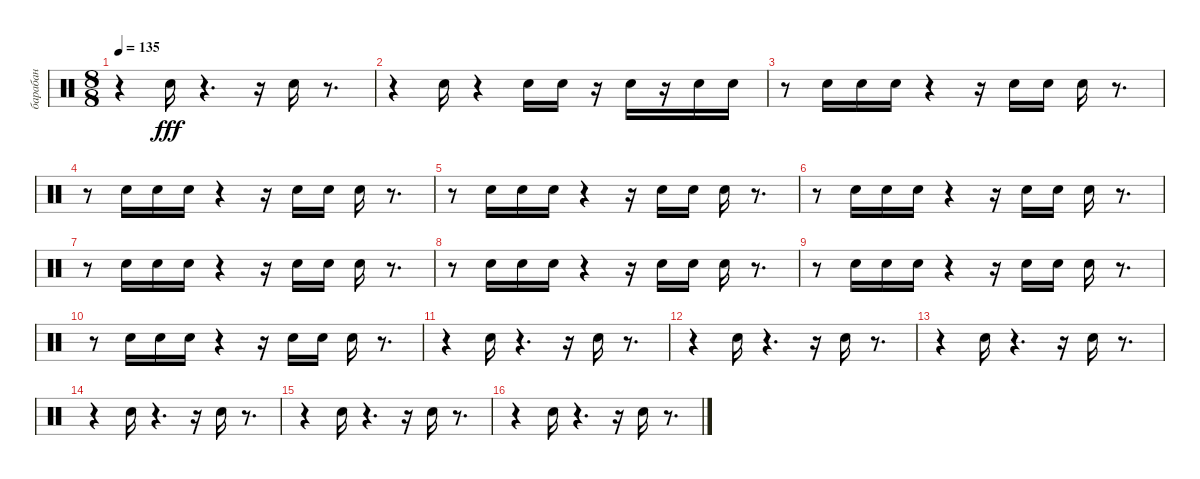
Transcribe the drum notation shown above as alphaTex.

\track ("барабан" "барабан") {instrument percussion}
\staff {score}
\articulation defaults
\ts (8 8)
\tempo 135
\clef neutral
\ks c
r.4{dy fff} "Snare (hit) 2".16 r.4{d} r.16 "Snare (hit) 2".16 r.8{d} |
r.4 "Snare (hit) 2".16 r.4 "Snare (hit) 2".16 "Snare (hit) 2".16 r.16 "Snare (hit) 2".16 r.16 "Snare (hit) 2".16 "Snare (hit) 2".16 |
r.8 "Snare (hit) 2".16 "Snare (hit) 2".16 "Snare (hit) 2".16 r.4 r.16 "Snare (hit) 2".16 "Snare (hit) 2".16 "Snare (hit) 2".16 r.8{d} |
r.8 "Snare (hit) 2".16 "Snare (hit) 2".16 "Snare (hit) 2".16 r.4 r.16 "Snare (hit) 2".16 "Snare (hit) 2".16 "Snare (hit) 2".16 r.8{d} |
r.8 "Snare (hit) 2".16 "Snare (hit) 2".16 "Snare (hit) 2".16 r.4 r.16 "Snare (hit) 2".16 "Snare (hit) 2".16 "Snare (hit) 2".16 r.8{d} |
r.8 "Snare (hit) 2".16 "Snare (hit) 2".16 "Snare (hit) 2".16 r.4 r.16 "Snare (hit) 2".16 "Snare (hit) 2".16 "Snare (hit) 2".16 r.8{d} |
r.8 "Snare (hit) 2".16 "Snare (hit) 2".16 "Snare (hit) 2".16 r.4 r.16 "Snare (hit) 2".16 "Snare (hit) 2".16 "Snare (hit) 2".16 r.8{d} |
r.8 "Snare (hit) 2".16 "Snare (hit) 2".16 "Snare (hit) 2".16 r.4 r.16 "Snare (hit) 2".16 "Snare (hit) 2".16 "Snare (hit) 2".16 r.8{d} |
r.8 "Snare (hit) 2".16 "Snare (hit) 2".16 "Snare (hit) 2".16 r.4 r.16 "Snare (hit) 2".16 "Snare (hit) 2".16 "Snare (hit) 2".16 r.8{d} |
r.8 "Snare (hit) 2".16 "Snare (hit) 2".16 "Snare (hit) 2".16 r.4 r.16 "Snare (hit) 2".16 "Snare (hit) 2".16 "Snare (hit) 2".16 r.8{d} |
r.4 "Snare (hit) 2".16 r.4{d} r.16 "Snare (hit) 2".16 r.8{d} |
r.4 "Snare (hit) 2".16 r.4{d} r.16 "Snare (hit) 2".16 r.8{d} |
r.4 "Snare (hit) 2".16 r.4{d} r.16 "Snare (hit) 2".16 r.8{d} |
r.4 "Snare (hit) 2".16 r.4{d} r.16 "Snare (hit) 2".16 r.8{d} |
r.4 "Snare (hit) 2".16 r.4{d} r.16 "Snare (hit) 2".16 r.8{d} |
r.4 "Snare (hit) 2".16 r.4{d} r.16 "Snare (hit) 2".16 r.8{d}
